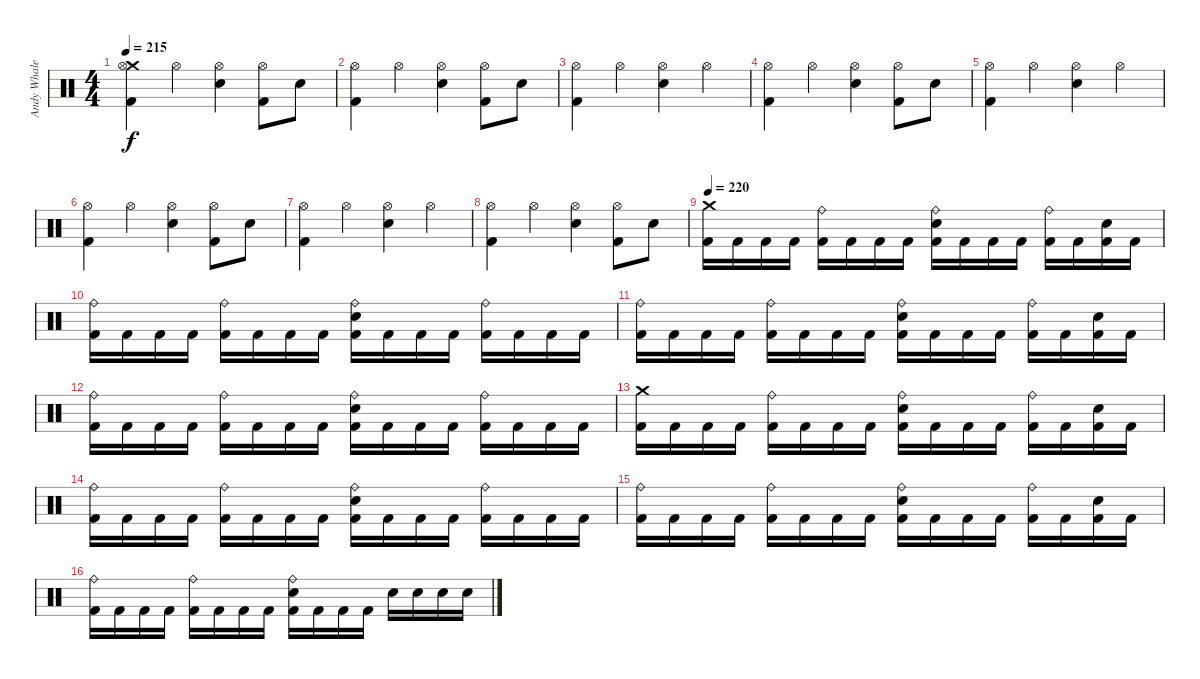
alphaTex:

\track ("Andy Whale" "Andy Whale") {instrument percussion}
\staff {score}
\articulation defaults
\ts (4 4)
\tempo 215
\clef neutral
\ks c
("Crash medium (hit)" "Hi-Hat (open)" "Kick (hit) 2").4{dy f} "Hi-Hat (open)".4 ("Hi-Hat (open)" "Snare (hit) 2").4 ("Hi-Hat (open)" "Kick (hit) 2").8 "Snare (hit) 2".8 |
("Hi-Hat (open)" "Kick (hit) 2").4 "Hi-Hat (open)".4 ("Hi-Hat (open)" "Snare (hit) 2").4 ("Hi-Hat (open)" "Kick (hit) 2").8 "Snare (hit) 2".8 |
("Hi-Hat (open)" "Kick (hit) 2").4 "Hi-Hat (open)".4 ("Hi-Hat (open)" "Snare (hit) 2").4 "Hi-Hat (open)".4 |
("Hi-Hat (open)" "Kick (hit) 2").4 "Hi-Hat (open)".4 ("Hi-Hat (open)" "Snare (hit) 2").4 ("Hi-Hat (open)" "Kick (hit) 2").8 "Snare (hit) 2".8 |
("Hi-Hat (open)" "Kick (hit) 2").4 "Hi-Hat (open)".4 ("Hi-Hat (open)" "Snare (hit) 2").4 "Hi-Hat (open)".4 |
("Hi-Hat (open)" "Kick (hit) 2").4 "Hi-Hat (open)".4 ("Hi-Hat (open)" "Snare (hit) 2").4 ("Hi-Hat (open)" "Kick (hit) 2").8 "Snare (hit) 2".8 |
("Hi-Hat (open)" "Kick (hit) 2").4 "Hi-Hat (open)".4 ("Hi-Hat (open)" "Snare (hit) 2").4 "Hi-Hat (open)".4 |
("Hi-Hat (open)" "Kick (hit) 2").4 "Hi-Hat (open)".4 ("Hi-Hat (open)" "Snare (hit) 2").4 ("Hi-Hat (open)" "Kick (hit) 2").8 "Snare (hit) 2".8 |
\tempo 220
("Crash medium (hit)" "Kick (hit) 2").16 "Kick (hit) 2".16 "Kick (hit) 2".16 "Kick (hit) 2".16 ("Ride (bell)" "Kick (hit) 2").16 "Kick (hit) 2".16 "Kick (hit) 2".16 "Kick (hit) 2".16 ("Ride (bell)" "Snare (hit) 2" "Kick (hit) 2").16 "Kick (hit) 2".16 "Kick (hit) 2".16 "Kick (hit) 2".16 ("Ride (bell)" "Kick (hit) 2").16 "Kick (hit) 2".16 ("Snare (hit) 2" "Kick (hit) 2").16 "Kick (hit) 2".16 |
("Ride (bell)" "Kick (hit) 2").16 "Kick (hit) 2".16 "Kick (hit) 2".16 "Kick (hit) 2".16 ("Ride (bell)" "Kick (hit) 2").16 "Kick (hit) 2".16 "Kick (hit) 2".16 "Kick (hit) 2".16 ("Ride (bell)" "Snare (hit) 2" "Kick (hit) 2").16 "Kick (hit) 2".16 "Kick (hit) 2".16 "Kick (hit) 2".16 ("Ride (bell)" "Kick (hit) 2").16 "Kick (hit) 2".16 "Kick (hit) 2".16 "Kick (hit) 2".16 |
("Ride (bell)" "Kick (hit) 2").16 "Kick (hit) 2".16 "Kick (hit) 2".16 "Kick (hit) 2".16 ("Ride (bell)" "Kick (hit) 2").16 "Kick (hit) 2".16 "Kick (hit) 2".16 "Kick (hit) 2".16 ("Ride (bell)" "Snare (hit) 2" "Kick (hit) 2").16 "Kick (hit) 2".16 "Kick (hit) 2".16 "Kick (hit) 2".16 ("Ride (bell)" "Kick (hit) 2").16 "Kick (hit) 2".16 ("Snare (hit) 2" "Kick (hit) 2").16 "Kick (hit) 2".16 |
("Ride (bell)" "Kick (hit) 2").16 "Kick (hit) 2".16 "Kick (hit) 2".16 "Kick (hit) 2".16 ("Ride (bell)" "Kick (hit) 2").16 "Kick (hit) 2".16 "Kick (hit) 2".16 "Kick (hit) 2".16 ("Ride (bell)" "Snare (hit) 2" "Kick (hit) 2").16 "Kick (hit) 2".16 "Kick (hit) 2".16 "Kick (hit) 2".16 ("Ride (bell)" "Kick (hit) 2").16 "Kick (hit) 2".16 "Kick (hit) 2".16 "Kick (hit) 2".16 |
("Crash medium (hit)" "Kick (hit) 2").16 "Kick (hit) 2".16 "Kick (hit) 2".16 "Kick (hit) 2".16 ("Ride (bell)" "Kick (hit) 2").16 "Kick (hit) 2".16 "Kick (hit) 2".16 "Kick (hit) 2".16 ("Ride (bell)" "Snare (hit) 2" "Kick (hit) 2").16 "Kick (hit) 2".16 "Kick (hit) 2".16 "Kick (hit) 2".16 ("Ride (bell)" "Kick (hit) 2").16 "Kick (hit) 2".16 ("Snare (hit) 2" "Kick (hit) 2").16 "Kick (hit) 2".16 |
("Ride (bell)" "Kick (hit) 2").16 "Kick (hit) 2".16 "Kick (hit) 2".16 "Kick (hit) 2".16 ("Ride (bell)" "Kick (hit) 2").16 "Kick (hit) 2".16 "Kick (hit) 2".16 "Kick (hit) 2".16 ("Ride (bell)" "Snare (hit) 2" "Kick (hit) 2").16 "Kick (hit) 2".16 "Kick (hit) 2".16 "Kick (hit) 2".16 ("Ride (bell)" "Kick (hit) 2").16 "Kick (hit) 2".16 "Kick (hit) 2".16 "Kick (hit) 2".16 |
("Ride (bell)" "Kick (hit) 2").16 "Kick (hit) 2".16 "Kick (hit) 2".16 "Kick (hit) 2".16 ("Ride (bell)" "Kick (hit) 2").16 "Kick (hit) 2".16 "Kick (hit) 2".16 "Kick (hit) 2".16 ("Ride (bell)" "Snare (hit) 2" "Kick (hit) 2").16 "Kick (hit) 2".16 "Kick (hit) 2".16 "Kick (hit) 2".16 ("Ride (bell)" "Kick (hit) 2").16 "Kick (hit) 2".16 ("Snare (hit) 2" "Kick (hit) 2").16 "Kick (hit) 2".16 |
("Ride (bell)" "Kick (hit) 2").16 "Kick (hit) 2".16 "Kick (hit) 2".16 "Kick (hit) 2".16 ("Ride (bell)" "Kick (hit) 2").16 "Kick (hit) 2".16 "Kick (hit) 2".16 "Kick (hit) 2".16 ("Ride (bell)" "Snare (hit) 2" "Kick (hit) 2").16 "Kick (hit) 2".16 "Kick (hit) 2".16 "Kick (hit) 2".16 "Snare (hit) 2".16 "Snare (hit) 2".16 "Snare (hit) 2".16 "Snare (hit) 2".16
